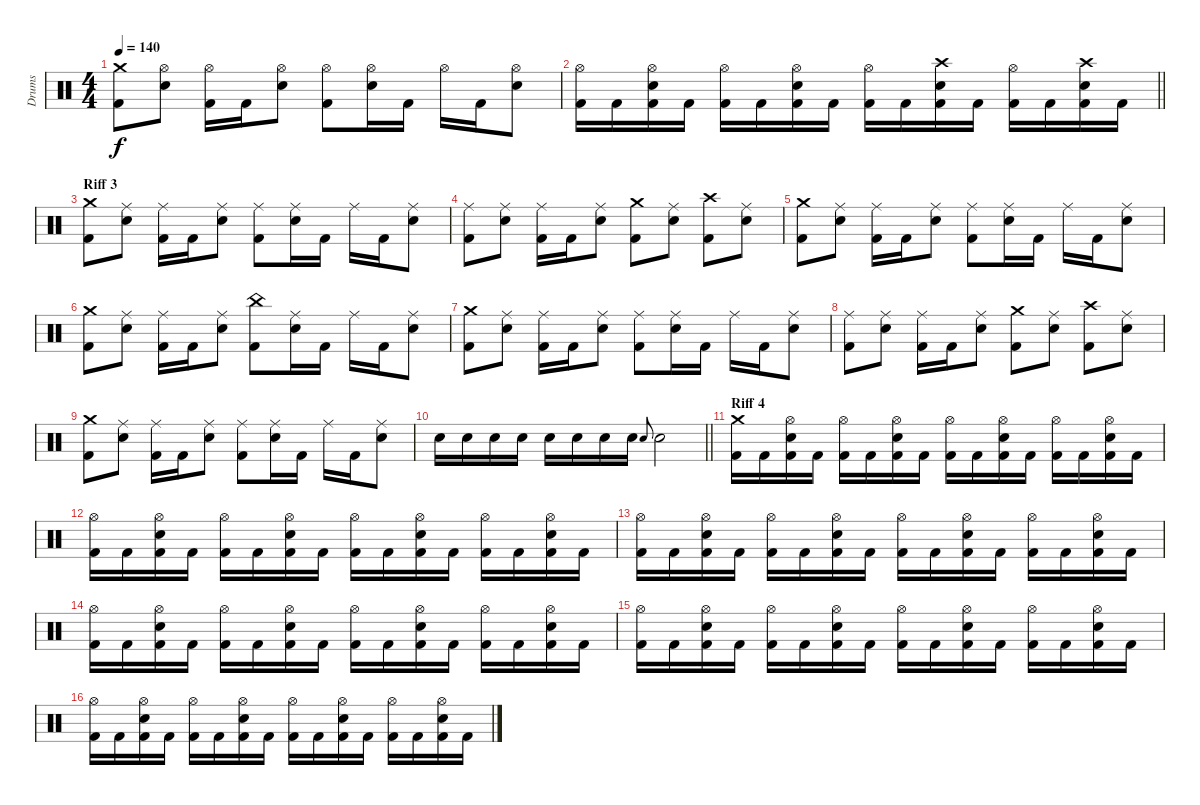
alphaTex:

\track ("Drums" "Drums") {instrument percussion}
\staff {score}
\articulation defaults
\ts (4 4)
\tempo 140
\clef neutral
\ks c
("Crash medium (hit)" "Kick (hit) 2").8{dy f} ("Hi-Hat (open)" "Electric Snare (hit)").8 ("Kick (hit) 2" "Hi-Hat (open)").16 "Kick (hit) 2".16 ("Hi-Hat (open)" "Electric Snare (hit)").8 ("Kick (hit) 2" "Hi-Hat (open)").8 ("Electric Snare (hit)" "Hi-Hat (open)").16 "Kick (hit) 2".16 "Hi-Hat (open)".16 "Kick (hit) 2".16 ("Electric Snare (hit)" "Hi-Hat (open)").8 |
\barLineRight lightlight
("Hi-Hat (open)" "Kick (hit) 2").16 "Kick (hit) 2".16 ("Hi-Hat (open)" "Electric Snare (hit)" "Kick (hit) 2").16 "Kick (hit) 2".16 ("Hi-Hat (open)" "Kick (hit) 2").16 "Kick (hit) 2".16 ("Hi-Hat (open)" "Electric Snare (hit)" "Kick (hit) 2").16 "Kick (hit) 2".16 ("Hi-Hat (open)" "Kick (hit) 2").16 "Kick (hit) 2".16 ("Crash high (hit)" "Electric Snare (hit)" "Kick (hit) 2").16 "Kick (hit) 2".16 ("Hi-Hat (open)" "Kick (hit) 2").16 "Kick (hit) 2".16 ("Crash high (hit)" "Electric Snare (hit)" "Kick (hit) 2").16 "Kick (hit) 2".16 |
\section ("" "Riff 3")
("Crash medium (hit)" "Kick (hit) 2").8 ("Ride (middle)" "Electric Snare (hit)").8 ("Kick (hit) 2" "Ride (middle)").16 "Kick (hit) 2".16 ("Ride (middle)" "Electric Snare (hit)").8 ("Kick (hit) 2" "Ride (middle)").8 ("Electric Snare (hit)" "Ride (middle)").16 "Kick (hit) 2".16 "Ride (middle)".16 "Kick (hit) 2".16 ("Electric Snare (hit)" "Ride (middle)").8 |
("Ride (middle)" "Kick (hit) 2").8 ("Ride (middle)" "Electric Snare (hit)").8 ("Kick (hit) 2" "Ride (middle)").16 "Kick (hit) 2".16 ("Ride (middle)" "Electric Snare (hit)").8 ("Kick (hit) 2" "Crash medium (hit)").8 ("Electric Snare (hit)" "Ride (middle)").8 ("Kick (hit) 2" "Crash high (hit)").8 ("Electric Snare (hit)" "Ride (middle)").8 |
("Crash medium (hit)" "Kick (hit) 2").8 ("Ride (middle)" "Electric Snare (hit)").8 ("Kick (hit) 2" "Ride (middle)").16 "Kick (hit) 2".16 ("Ride (middle)" "Electric Snare (hit)").8 ("Kick (hit) 2" "Ride (middle)").8 ("Electric Snare (hit)" "Ride (middle)").16 "Kick (hit) 2".16 "Ride (middle)".16 "Kick (hit) 2".16 ("Electric Snare (hit)" "Ride (middle)").8 |
("Crash medium (hit)" "Kick (hit) 2").8 ("Ride (middle)" "Electric Snare (hit)").8 ("Kick (hit) 2" "Ride (middle)").16 "Kick (hit) 2".16 ("Ride (middle)" "Electric Snare (hit)").8 ("Kick (hit) 2" "China (hit)").8 ("Electric Snare (hit)" "Ride (middle)").16 "Kick (hit) 2".16 "Ride (middle)".16 "Kick (hit) 2".16 ("Electric Snare (hit)" "Ride (middle)").8 |
("Crash medium (hit)" "Kick (hit) 2").8 ("Ride (middle)" "Electric Snare (hit)").8 ("Kick (hit) 2" "Ride (middle)").16 "Kick (hit) 2".16 ("Ride (middle)" "Electric Snare (hit)").8 ("Kick (hit) 2" "Ride (middle)").8 ("Electric Snare (hit)" "Ride (middle)").16 "Kick (hit) 2".16 "Ride (middle)".16 "Kick (hit) 2".16 ("Electric Snare (hit)" "Ride (middle)").8 |
("Ride (middle)" "Kick (hit) 2").8 ("Ride (middle)" "Electric Snare (hit)").8 ("Kick (hit) 2" "Ride (middle)").16 "Kick (hit) 2".16 ("Ride (middle)" "Electric Snare (hit)").8 ("Kick (hit) 2" "Crash medium (hit)").8 ("Electric Snare (hit)" "Ride (middle)").8 ("Kick (hit) 2" "Crash high (hit)").8 ("Electric Snare (hit)" "Ride (middle)").8 |
("Crash medium (hit)" "Kick (hit) 2").8 ("Ride (middle)" "Electric Snare (hit)").8 ("Kick (hit) 2" "Ride (middle)").16 "Kick (hit) 2".16 ("Ride (middle)" "Electric Snare (hit)").8 ("Kick (hit) 2" "Ride (middle)").8 ("Electric Snare (hit)" "Ride (middle)").16 "Kick (hit) 2".16 "Ride (middle)".16 "Kick (hit) 2".16 ("Electric Snare (hit)" "Ride (middle)").8 |
\barLineRight lightlight "Electric Snare (hit)".16 "Electric Snare (hit)".16 "Electric Snare (hit)".16 "Electric Snare (hit)".16 "Electric Snare (hit)".16 "Electric Snare (hit)".16 "Electric Snare (hit)".16 "Electric Snare (hit)".16 "Electric Snare (hit)".8{gr onbeat} "Electric Snare (hit)".2
|
\section ("" "Riff 4")
("Crash medium (hit)" "Kick (hit) 2").16 "Kick (hit) 2".16 ("Electric Snare (hit)" "Hi-Hat (open)" "Kick (hit) 2").16 "Kick (hit) 2".16 ("Hi-Hat (open)" "Kick (hit) 2").16 "Kick (hit) 2".16 ("Electric Snare (hit)" "Hi-Hat (open)" "Kick (hit) 2").16 "Kick (hit) 2".16 ("Hi-Hat (open)" "Kick (hit) 2").16 "Kick (hit) 2".16 ("Electric Snare (hit)" "Hi-Hat (open)" "Kick (hit) 2").16 "Kick (hit) 2".16 ("Hi-Hat (open)" "Kick (hit) 2").16 "Kick (hit) 2".16 ("Kick (hit) 2" "Electric Snare (hit)" "Hi-Hat (open)").16 "Kick (hit) 2".16 |
("Hi-Hat (open)" "Kick (hit) 2").16 "Kick (hit) 2".16 ("Electric Snare (hit)" "Hi-Hat (open)" "Kick (hit) 2").16 "Kick (hit) 2".16 ("Hi-Hat (open)" "Kick (hit) 2").16 "Kick (hit) 2".16 ("Kick (hit) 2" "Electric Snare (hit)" "Hi-Hat (open)").16 "Kick (hit) 2".16 ("Hi-Hat (open)" "Kick (hit) 2").16 "Kick (hit) 2".16 ("Electric Snare (hit)" "Hi-Hat (open)" "Kick (hit) 2").16 "Kick (hit) 2".16 ("Hi-Hat (open)" "Kick (hit) 2").16 "Kick (hit) 2".16 ("Kick (hit) 2" "Electric Snare (hit)" "Hi-Hat (open)").16 "Kick (hit) 2".16 |
("Hi-Hat (open)" "Kick (hit) 2").16 "Kick (hit) 2".16 ("Electric Snare (hit)" "Hi-Hat (open)" "Kick (hit) 2").16 "Kick (hit) 2".16 ("Hi-Hat (open)" "Kick (hit) 2").16 "Kick (hit) 2".16 ("Kick (hit) 2" "Electric Snare (hit)" "Hi-Hat (open)").16 "Kick (hit) 2".16 ("Hi-Hat (open)" "Kick (hit) 2").16 "Kick (hit) 2".16 ("Electric Snare (hit)" "Hi-Hat (open)" "Kick (hit) 2").16 "Kick (hit) 2".16 ("Hi-Hat (open)" "Kick (hit) 2").16 "Kick (hit) 2".16 ("Kick (hit) 2" "Electric Snare (hit)" "Hi-Hat (open)").16 "Kick (hit) 2".16 |
("Hi-Hat (open)" "Kick (hit) 2").16 "Kick (hit) 2".16 ("Electric Snare (hit)" "Hi-Hat (open)" "Kick (hit) 2").16 "Kick (hit) 2".16 ("Hi-Hat (open)" "Kick (hit) 2").16 "Kick (hit) 2".16 ("Kick (hit) 2" "Electric Snare (hit)" "Hi-Hat (open)").16 "Kick (hit) 2".16 ("Hi-Hat (open)" "Kick (hit) 2").16 "Kick (hit) 2".16 ("Electric Snare (hit)" "Hi-Hat (open)" "Kick (hit) 2").16 "Kick (hit) 2".16 ("Hi-Hat (open)" "Kick (hit) 2").16 "Kick (hit) 2".16 ("Kick (hit) 2" "Electric Snare (hit)" "Hi-Hat (open)").16 "Kick (hit) 2".16 |
("Hi-Hat (open)" "Kick (hit) 2").16 "Kick (hit) 2".16 ("Electric Snare (hit)" "Hi-Hat (open)" "Kick (hit) 2").16 "Kick (hit) 2".16 ("Hi-Hat (open)" "Kick (hit) 2").16 "Kick (hit) 2".16 ("Kick (hit) 2" "Electric Snare (hit)" "Hi-Hat (open)").16 "Kick (hit) 2".16 ("Hi-Hat (open)" "Kick (hit) 2").16 "Kick (hit) 2".16 ("Electric Snare (hit)" "Hi-Hat (open)" "Kick (hit) 2").16 "Kick (hit) 2".16 ("Hi-Hat (open)" "Kick (hit) 2").16 "Kick (hit) 2".16 ("Kick (hit) 2" "Electric Snare (hit)" "Hi-Hat (open)").16 "Kick (hit) 2".16 |
("Hi-Hat (open)" "Kick (hit) 2").16 "Kick (hit) 2".16 ("Electric Snare (hit)" "Hi-Hat (open)" "Kick (hit) 2").16 "Kick (hit) 2".16 ("Hi-Hat (open)" "Kick (hit) 2").16 "Kick (hit) 2".16 ("Kick (hit) 2" "Electric Snare (hit)" "Hi-Hat (open)").16 "Kick (hit) 2".16 ("Hi-Hat (open)" "Kick (hit) 2").16 "Kick (hit) 2".16 ("Electric Snare (hit)" "Hi-Hat (open)" "Kick (hit) 2").16 "Kick (hit) 2".16 ("Hi-Hat (open)" "Kick (hit) 2").16 "Kick (hit) 2".16 ("Kick (hit) 2" "Electric Snare (hit)" "Hi-Hat (open)").16 "Kick (hit) 2".16
